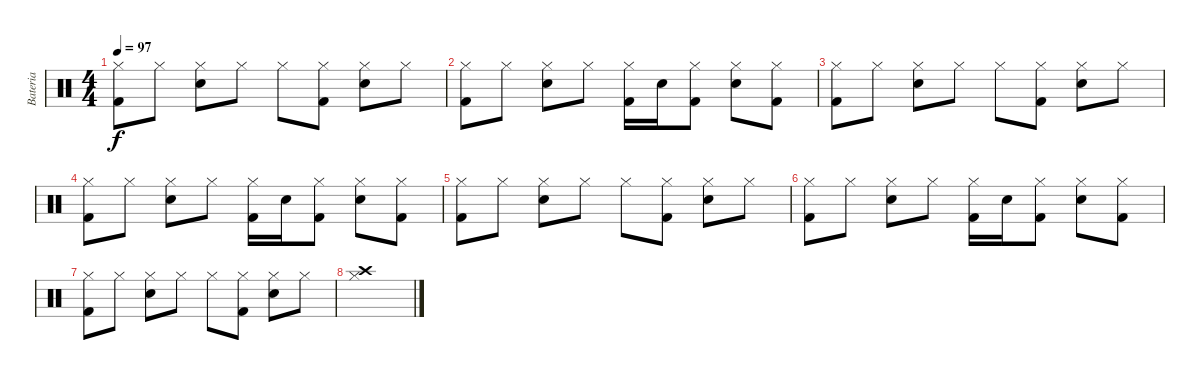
\track ("Bateria" "Bateria") {instrument percussion}
\staff {score}
\articulation defaults
\ts (4 4)
\tempo 97
\clef neutral
\ks c
("Kick (hit) 2" "Hi-Hat (closed)").8{dy f} "Hi-Hat (closed)".8 ("Electric Snare (hit)" "Hi-Hat (closed)").8 "Hi-Hat (closed)".8 "Hi-Hat (closed)".8 ("Kick (hit) 2" "Hi-Hat (closed)").8 ("Electric Snare (hit)" "Hi-Hat (closed)").8 "Hi-Hat (closed)".8 |
("Kick (hit) 2" "Hi-Hat (closed)").8 "Hi-Hat (closed)".8 ("Electric Snare (hit)" "Hi-Hat (closed)").8 "Hi-Hat (closed)".8 ("Kick (hit) 2" "Hi-Hat (closed)").16 "Electric Snare (hit)".16 ("Kick (hit) 2" "Hi-Hat (closed)").8 ("Electric Snare (hit)" "Hi-Hat (closed)").8 ("Kick (hit) 2" "Hi-Hat (closed)").8 |
("Kick (hit) 2" "Hi-Hat (closed)").8 "Hi-Hat (closed)".8 ("Electric Snare (hit)" "Hi-Hat (closed)").8 "Hi-Hat (closed)".8 "Hi-Hat (closed)".8 ("Kick (hit) 2" "Hi-Hat (closed)").8 ("Electric Snare (hit)" "Hi-Hat (closed)").8 "Hi-Hat (closed)".8 |
("Kick (hit) 2" "Hi-Hat (closed)").8 "Hi-Hat (closed)".8 ("Electric Snare (hit)" "Hi-Hat (closed)").8 "Hi-Hat (closed)".8 ("Kick (hit) 2" "Hi-Hat (closed)").16 "Electric Snare (hit)".16 ("Kick (hit) 2" "Hi-Hat (closed)").8 ("Electric Snare (hit)" "Hi-Hat (closed)").8 ("Kick (hit) 2" "Hi-Hat (closed)").8 |
("Kick (hit) 2" "Hi-Hat (closed)").8 "Hi-Hat (closed)".8 ("Electric Snare (hit)" "Hi-Hat (closed)").8 "Hi-Hat (closed)".8 "Hi-Hat (closed)".8 ("Kick (hit) 2" "Hi-Hat (closed)").8 ("Electric Snare (hit)" "Hi-Hat (closed)").8 "Hi-Hat (closed)".8 |
("Kick (hit) 2" "Hi-Hat (closed)").8 "Hi-Hat (closed)".8 ("Electric Snare (hit)" "Hi-Hat (closed)").8 "Hi-Hat (closed)".8 ("Kick (hit) 2" "Hi-Hat (closed)").16 "Electric Snare (hit)".16 ("Kick (hit) 2" "Hi-Hat (closed)").8 ("Electric Snare (hit)" "Hi-Hat (closed)").8 ("Kick (hit) 2" "Hi-Hat (closed)").8 |
("Kick (hit) 2" "Hi-Hat (closed)").8 "Hi-Hat (closed)".8 ("Electric Snare (hit)" "Hi-Hat (closed)").8 "Hi-Hat (closed)".8 "Hi-Hat (closed)".8 ("Kick (hit) 2" "Hi-Hat (closed)").8 ("Electric Snare (hit)" "Hi-Hat (closed)").8 "Hi-Hat (closed)".8 |
("Crash high (hit)" "Hi-Hat (closed)").1
